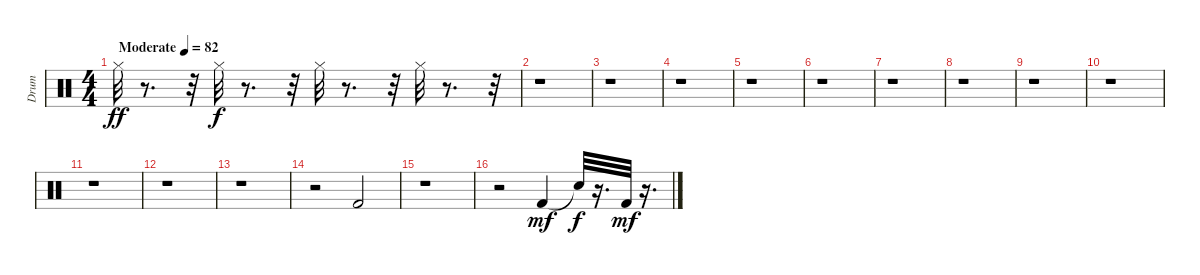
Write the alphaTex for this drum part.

\track ("Drum" "Drum") {instrument percussion}
\staff {score}
\articulation defaults
\ts (4 4)
\tempo (82 "Moderate")
\clef neutral
\ks c "Hi-Hat (closed)".32{dy ff}
r.8{d} r.32 "Hi-Hat (closed)".32{dy f} r.8{d} r.32 "Hi-Hat (closed)".32 r.8{d} r.32 "Hi-Hat (closed)".32 r.8{d} r.32 |
r.1 |
r.1 |
r.1 |
r.1 |
r.1 |
r.1 |
r.1 |
r.1 |
r.1 |
r.1 |
r.1 |
r.1 |
r.2 "Kick (hit) 2".2 |
r.1 |
r.2 "Kick (hit) 2".4{dy mf} "Snare (hit)"{t}.32{dy f} r.16{d} "Kick (hit) 2".32{dy mf} r.16{d}
